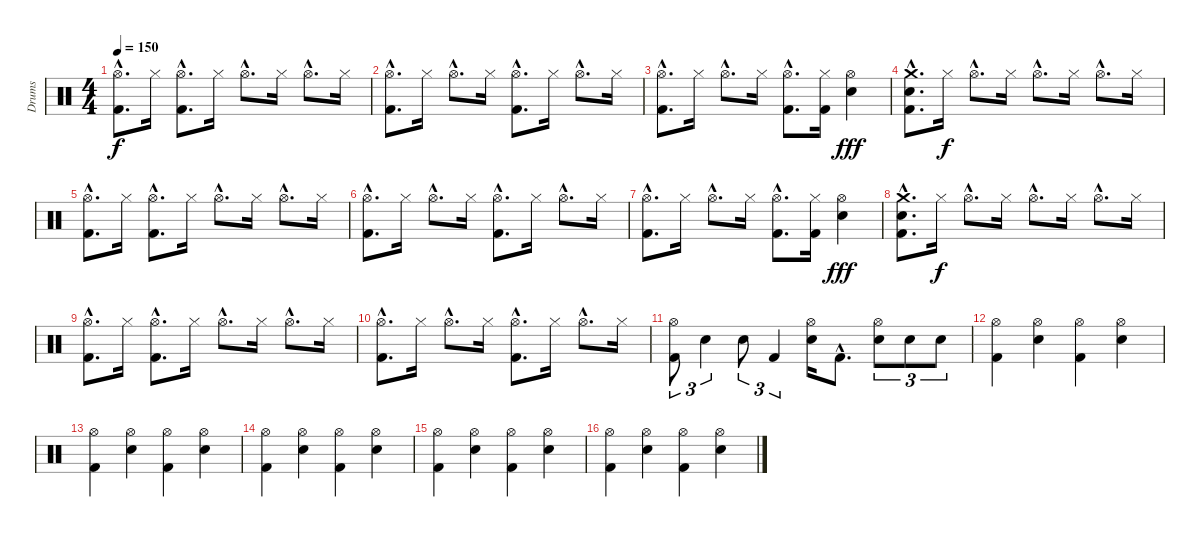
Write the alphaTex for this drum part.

\track ("Drums" "Drums") {instrument percussion}
\staff {score}
\articulation defaults
\ts (4 4)
\tempo 150
\clef neutral
\ks c
("Hi-Hat (open)"{hac} "Kick (hit) 2"{hac}).8{d dy f volume 9} "Hi-Hat (closed)".16 ("Hi-Hat (open)"{hac} "Kick (hit) 2"{hac}).8{d} "Hi-Hat (closed)".16 "Hi-Hat (open)"{hac}.8{d} "Hi-Hat (closed)".16 "Hi-Hat (open)"{hac}.8{d} "Hi-Hat (closed)".16 |
("Hi-Hat (open)"{hac} "Kick (hit) 2"{hac}).8{d volume 9} "Hi-Hat (closed)".16 "Hi-Hat (open)"{hac}.8{d} "Hi-Hat (closed)".16 ("Hi-Hat (open)"{hac} "Kick (hit) 2"{hac}).8{d} "Hi-Hat (closed)".16 "Hi-Hat (open)"{hac}.8{d} "Hi-Hat (closed)".16 |
("Hi-Hat (open)"{hac} "Kick (hit) 2"{hac}).8{d volume 9} "Hi-Hat (closed)".16 "Hi-Hat (open)"{hac}.8{d} "Hi-Hat (closed)".16 ("Hi-Hat (open)"{hac} "Kick (hit) 2"{hac}).8{d} ("Hi-Hat (closed)" "Kick (hit) 2").16 ("Hi-Hat (open)" "Snare (hit) 2").4{dy fff} |
("Crash medium (hit)"{hac} "Snare (hit) 2"{hac} "Kick (hit) 2"{hac}).8{d volume 9} "Hi-Hat (closed)".16{dy f} "Hi-Hat (open)"{hac}.8{d} "Hi-Hat (closed)".16 "Hi-Hat (open)"{hac}.8{d} "Hi-Hat (closed)".16 "Hi-Hat (open)"{hac}.8{d} "Hi-Hat (closed)".16 |
("Hi-Hat (open)"{hac} "Kick (hit) 2"{hac}).8{d volume 9} "Hi-Hat (closed)".16 ("Hi-Hat (open)"{hac} "Kick (hit) 2"{hac}).8{d} "Hi-Hat (closed)".16 "Hi-Hat (open)"{hac}.8{d} "Hi-Hat (closed)".16 "Hi-Hat (open)"{hac}.8{d} "Hi-Hat (closed)".16 |
("Hi-Hat (open)"{hac} "Kick (hit) 2"{hac}).8{d volume 9} "Hi-Hat (closed)".16 "Hi-Hat (open)"{hac}.8{d} "Hi-Hat (closed)".16 ("Hi-Hat (open)"{hac} "Kick (hit) 2"{hac}).8{d} "Hi-Hat (closed)".16 "Hi-Hat (open)"{hac}.8{d} "Hi-Hat (closed)".16 |
("Hi-Hat (open)"{hac} "Kick (hit) 2"{hac}).8{d volume 9} "Hi-Hat (closed)".16 "Hi-Hat (open)"{hac}.8{d} "Hi-Hat (closed)".16 ("Hi-Hat (open)"{hac} "Kick (hit) 2"{hac}).8{d} ("Hi-Hat (closed)" "Kick (hit) 2").16 ("Hi-Hat (open)" "Snare (hit) 2").4{dy fff} |
("Crash medium (hit)"{hac} "Snare (hit) 2"{hac} "Kick (hit) 2"{hac}).8{d volume 9} "Hi-Hat (closed)".16{dy f} "Hi-Hat (open)"{hac}.8{d} "Hi-Hat (closed)".16 "Hi-Hat (open)"{hac}.8{d} "Hi-Hat (closed)".16 "Hi-Hat (open)"{hac}.8{d} "Hi-Hat (closed)".16 |
("Hi-Hat (open)"{hac} "Kick (hit) 2"{hac}).8{d volume 9} "Hi-Hat (closed)".16 ("Hi-Hat (open)"{hac} "Kick (hit) 2"{hac}).8{d} "Hi-Hat (closed)".16 "Hi-Hat (open)"{hac}.8{d} "Hi-Hat (closed)".16 "Hi-Hat (open)"{hac}.8{d} "Hi-Hat (closed)".16 |
("Hi-Hat (open)"{hac} "Kick (hit) 2"{hac}).8{d volume 13} "Hi-Hat (closed)".16 "Hi-Hat (open)"{hac}.8{d} "Hi-Hat (closed)".16 ("Hi-Hat (open)"{hac} "Kick (hit) 2"{hac}).8{d} "Hi-Hat (closed)".16 "Hi-Hat (open)"{hac}.8{d} "Hi-Hat (closed)".16 |
("Hi-Hat (open)" "Kick (hit) 2").8{tu (3 2)} "Snare (hit) 2".4{tu (3 2)} "Snare (hit) 2".8{tu (3 2)} "Kick (hit) 2".4{tu (3 2)} ("Hi-Hat (open)" "Snare (hit) 2").16 "Kick (hit) 2"{hac}.8{d} ("Hi-Hat (open)" "Snare (hit) 2").8{tu (3 2)} "Snare (hit) 2".8{tu (3 2)} "Snare (hit) 2".8{tu (3 2)} |
("Hi-Hat (open)" "Kick (hit) 2").4 ("Hi-Hat (open)" "Snare (hit) 2").4 ("Hi-Hat (open)" "Kick (hit) 2").4 ("Hi-Hat (open)" "Snare (hit) 2").4 |
("Hi-Hat (open)" "Kick (hit) 2").4 ("Hi-Hat (open)" "Snare (hit) 2").4 ("Hi-Hat (open)" "Kick (hit) 2").4 ("Hi-Hat (open)" "Snare (hit) 2").4 |
("Hi-Hat (open)" "Kick (hit) 2").4 ("Hi-Hat (open)" "Snare (hit) 2").4 ("Hi-Hat (open)" "Kick (hit) 2").4 ("Hi-Hat (open)" "Snare (hit) 2").4 |
("Hi-Hat (open)" "Kick (hit) 2").4 ("Hi-Hat (open)" "Snare (hit) 2").4 ("Hi-Hat (open)" "Kick (hit) 2").4 ("Hi-Hat (open)" "Snare (hit) 2").4 |
("Hi-Hat (open)" "Kick (hit) 2").4 ("Hi-Hat (open)" "Snare (hit) 2").4 ("Hi-Hat (open)" "Kick (hit) 2").4 ("Hi-Hat (open)" "Snare (hit) 2").4
